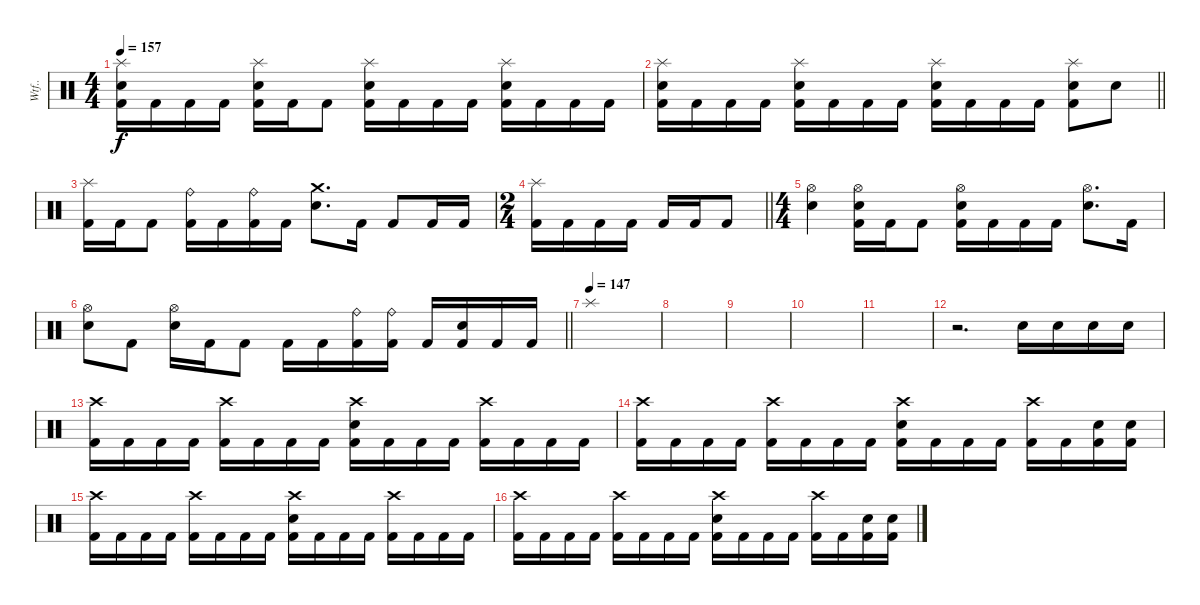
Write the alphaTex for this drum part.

\track ("Wtf.." "Wtf..") {instrument percussion}
\staff {score}
\articulation defaults
\ts (4 4)
\tempo 157
\clef neutral
\ks c
("Splash (hit)" "Electric Snare (hit)" "Kick (hit) 2").16{dy f} "Kick (hit) 2".16 "Kick (hit) 2".16 "Kick (hit) 2".16 ("Splash (hit)" "Electric Snare (hit)" "Kick (hit) 2").16 "Kick (hit) 2".16 "Kick (hit) 2".8 ("Splash (hit)" "Electric Snare (hit)" "Kick (hit) 2").16 "Kick (hit) 2".16 "Kick (hit) 2".16 "Kick (hit) 2".16 ("Splash (hit)" "Electric Snare (hit)" "Kick (hit) 2").16 "Kick (hit) 2".16 "Kick (hit) 2".16 "Kick (hit) 2".16 |
\barLineRight lightlight
("Splash (hit)" "Electric Snare (hit)" "Kick (hit) 2").16 "Kick (hit) 2".16 "Kick (hit) 2".16 "Kick (hit) 2".16 ("Splash (hit)" "Electric Snare (hit)" "Kick (hit) 2").16 "Kick (hit) 2".16 "Kick (hit) 2".16 "Kick (hit) 2".16 ("Splash (hit)" "Electric Snare (hit)" "Kick (hit) 2").16 "Kick (hit) 2".16 "Kick (hit) 2".16 "Kick (hit) 2".16 ("Splash (hit)" "Electric Snare (hit)" "Kick (hit) 2").8 "Electric Snare (hit)".8 |
\section ("" "")
("Splash (hit)" "Kick (hit) 2").16 "Kick (hit) 2".16 "Kick (hit) 2".8 ("Ride (bell)" "Kick (hit) 2").16 "Kick (hit) 2".16 ("Ride (bell)" "Kick (hit) 2").16 "Kick (hit) 2".16 ("Crash medium (hit)" "Electric Snare (hit)").8{d} "Kick (hit) 2".16 "Kick (hit) 2".8 "Kick (hit) 2".16 "Kick (hit) 2".16 |
\ts (2 4)
\barLineRight lightlight
("Splash (hit)" "Kick (hit) 2").16 "Kick (hit) 2".16 "Kick (hit) 2".16 "Kick (hit) 2".16 "Kick (hit) 2".16 "Kick (hit) 2".16 "Kick (hit) 2".8 |
\ts (4 4)
\section ("" "")
("Hi-Hat (open)" "Electric Snare (hit)").4 ("Hi-Hat (open)" "Electric Snare (hit)" "Kick (hit) 2").16 "Kick (hit) 2".16 "Kick (hit) 2".8 ("Hi-Hat (open)" "Electric Snare (hit)" "Kick (hit) 2").16 "Kick (hit) 2".16 "Kick (hit) 2".16 "Kick (hit) 2".16 ("Hi-Hat (open)" "Electric Snare (hit)").8{d} "Kick (hit) 2".16 |
\barLineRight lightlight
("Hi-Hat (open)" "Electric Snare (hit)").8 "Kick (hit) 2".8 ("Hi-Hat (open)" "Electric Snare (hit)").16 "Kick (hit) 2".16 "Kick (hit) 2".8 "Kick (hit) 2".16 "Kick (hit) 2".16 ("Ride (bell)" "Kick (hit) 2").16 ("Ride (bell)" "Kick (hit) 2").16 "Kick (hit) 2".16 ("Electric Snare (hit)" "Kick (hit) 2").16 "Kick (hit) 2".16 "Kick (hit) 2".16 |
\section ("" "")
\tempo (147)
"Splash (hit)".1 |
|
|
|
|
r.2{d} "Electric Snare (hit)".16 "Electric Snare (hit)".16 "Electric Snare (hit)".16 "Electric Snare (hit)".16 |
("Crash high (hit)" "Kick (hit) 2").16 "Kick (hit) 2".16 "Kick (hit) 2".16 "Kick (hit) 2".16 ("Crash high (hit)" "Kick (hit) 2").16 "Kick (hit) 2".16 "Kick (hit) 2".16 "Kick (hit) 2".16 ("Crash high (hit)" "Electric Snare (hit)" "Kick (hit) 2").16 "Kick (hit) 2".16 "Kick (hit) 2".16 "Kick (hit) 2".16 ("Crash high (hit)" "Kick (hit) 2").16 "Kick (hit) 2".16 "Kick (hit) 2".16 "Kick (hit) 2".16 |
("Crash high (hit)" "Kick (hit) 2").16 "Kick (hit) 2".16 "Kick (hit) 2".16 "Kick (hit) 2".16 ("Crash high (hit)" "Kick (hit) 2").16 "Kick (hit) 2".16 "Kick (hit) 2".16 "Kick (hit) 2".16 ("Crash high (hit)" "Electric Snare (hit)" "Kick (hit) 2").16 "Kick (hit) 2".16 "Kick (hit) 2".16 "Kick (hit) 2".16 ("Crash high (hit)" "Kick (hit) 2").16 "Kick (hit) 2".16 ("Electric Snare (hit)" "Kick (hit) 2").16 ("Electric Snare (hit)" "Kick (hit) 2").16 |
("Crash high (hit)" "Kick (hit) 2").16 "Kick (hit) 2".16 "Kick (hit) 2".16 "Kick (hit) 2".16 ("Crash high (hit)" "Kick (hit) 2").16 "Kick (hit) 2".16 "Kick (hit) 2".16 "Kick (hit) 2".16 ("Crash high (hit)" "Electric Snare (hit)" "Kick (hit) 2").16 "Kick (hit) 2".16 "Kick (hit) 2".16 "Kick (hit) 2".16 ("Crash high (hit)" "Kick (hit) 2").16 "Kick (hit) 2".16 "Kick (hit) 2".16 "Kick (hit) 2".16 |
("Crash high (hit)" "Kick (hit) 2").16 "Kick (hit) 2".16 "Kick (hit) 2".16 "Kick (hit) 2".16 ("Crash high (hit)" "Kick (hit) 2").16 "Kick (hit) 2".16 "Kick (hit) 2".16 "Kick (hit) 2".16 ("Crash high (hit)" "Electric Snare (hit)" "Kick (hit) 2").16 "Kick (hit) 2".16 "Kick (hit) 2".16 "Kick (hit) 2".16 ("Crash high (hit)" "Kick (hit) 2").16 "Kick (hit) 2".16 ("Electric Snare (hit)" "Kick (hit) 2").16 ("Electric Snare (hit)" "Kick (hit) 2").16
